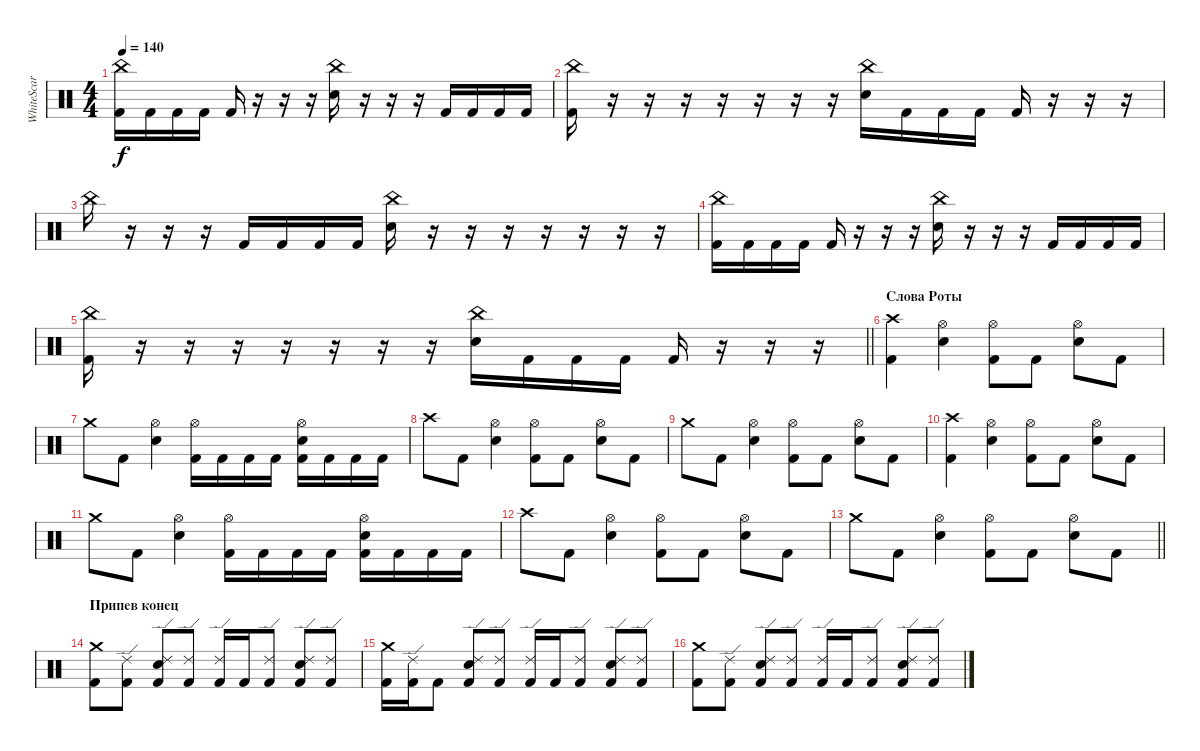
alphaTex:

\track ("WhiteScar " "WhiteScar ") {instrument percussion}
\staff {score}
\articulation defaults
\ts (4 4)
\tempo 140
\clef neutral
\ks c
("China (hit)" "Kick (hit) 2").16{dy f} "Kick (hit) 2".16 "Kick (hit) 2".16 "Kick (hit) 2".16 "Kick (hit) 2".16 r.16 r.16 r.16 ("China (hit)" "Snare (hit) 2").16 r.16 r.16 r.16 "Kick (hit) 2".16 "Kick (hit) 2".16 "Kick (hit) 2".16 "Kick (hit) 2".16 |
("China (hit)" "Kick (hit) 2").16 r.16 r.16 r.16 r.16 r.16 r.16 r.16 ("China (hit)" "Snare (hit) 2").16 "Kick (hit) 2".16 "Kick (hit) 2".16 "Kick (hit) 2".16 "Kick (hit) 2".16 r.16 r.16 r.16 |
"China (hit)".16 r.16 r.16 r.16 "Kick (hit) 2".16 "Kick (hit) 2".16 "Kick (hit) 2".16 "Kick (hit) 2".16 ("China (hit)" "Snare (hit) 2").16 r.16 r.16 r.16 r.16 r.16 r.16 r.16 |
("China (hit)" "Kick (hit) 2").16 "Kick (hit) 2".16 "Kick (hit) 2".16 "Kick (hit) 2".16 "Kick (hit) 2".16 r.16 r.16 r.16 ("China (hit)" "Snare (hit) 2").16 r.16 r.16 r.16 "Kick (hit) 2".16 "Kick (hit) 2".16 "Kick (hit) 2".16 "Kick (hit) 2".16 |
\barLineRight lightlight
("China (hit)" "Kick (hit) 2").16 r.16 r.16 r.16 r.16 r.16 r.16 r.16 ("China (hit)" "Snare (hit) 2").16 "Kick (hit) 2".16 "Kick (hit) 2".16 "Kick (hit) 2".16 "Kick (hit) 2".16 r.16 r.16 r.16 |
\section ("" "Слова Роты")
("Crash high (hit)" "Kick (hit) 2").4 ("Hi-Hat (open)" "Snare (hit) 2").4 ("Hi-Hat (open)" "Kick (hit) 2").8 "Kick (hit) 2".8 ("Hi-Hat (open)" "Snare (hit) 2").8 "Kick (hit) 2".8 |
"Crash medium (hit)".8 "Kick (hit) 2".8 ("Hi-Hat (open)" "Snare (hit) 2").4 ("Hi-Hat (open)" "Kick (hit) 2").16 "Kick (hit) 2".16 "Kick (hit) 2".16 "Kick (hit) 2".16 ("Hi-Hat (open)" "Snare (hit) 2" "Kick (hit) 2").16 "Kick (hit) 2".16 "Kick (hit) 2".16 "Kick (hit) 2".16 |
"Crash high (hit)".8 "Kick (hit) 2".8 ("Hi-Hat (open)" "Snare (hit) 2").4 ("Hi-Hat (open)" "Kick (hit) 2").8 "Kick (hit) 2".8 ("Hi-Hat (open)" "Snare (hit) 2").8 "Kick (hit) 2".8 |
"Crash medium (hit)".8 "Kick (hit) 2".8 ("Hi-Hat (open)" "Snare (hit) 2").4 ("Hi-Hat (open)" "Kick (hit) 2").8 "Kick (hit) 2".8 ("Hi-Hat (open)" "Snare (hit) 2").8 "Kick (hit) 2".8 |
("Crash high (hit)" "Kick (hit) 2").4 ("Hi-Hat (open)" "Snare (hit) 2").4 ("Hi-Hat (open)" "Kick (hit) 2").8 "Kick (hit) 2".8 ("Hi-Hat (open)" "Snare (hit) 2").8 "Kick (hit) 2".8 |
"Crash medium (hit)".8 "Kick (hit) 2".8 ("Hi-Hat (open)" "Snare (hit) 2").4 ("Hi-Hat (open)" "Kick (hit) 2").16 "Kick (hit) 2".16 "Kick (hit) 2".16 "Kick (hit) 2".16 ("Hi-Hat (open)" "Snare (hit) 2" "Kick (hit) 2").16 "Kick (hit) 2".16 "Kick (hit) 2".16 "Kick (hit) 2".16 |
"Crash high (hit)".8 "Kick (hit) 2".8 ("Hi-Hat (open)" "Snare (hit) 2").4 ("Hi-Hat (open)" "Kick (hit) 2").8 "Kick (hit) 2".8 ("Hi-Hat (open)" "Snare (hit) 2").8 "Kick (hit) 2".8 |
\barLineRight lightlight "Crash medium (hit)".8 "Kick (hit) 2".8
("Hi-Hat (open)" "Snare (hit) 2").4 ("Hi-Hat (open)" "Kick (hit) 2").8 "Kick (hit) 2".8 ("Hi-Hat (open)" "Snare (hit) 2").8 "Kick (hit) 2".8 |
\section ("" "Припев конец")
("Crash medium (hit)" "Kick (hit) 2").8 ("Ride (edge) 2" "Kick (hit) 2").8 ("Snare (hit) 2" "Ride (edge) 2" "Kick (hit) 2").8 ("Ride (edge) 2" "Kick (hit) 2").8 ("Ride (edge) 2" "Kick (hit) 2").16 "Kick (hit) 2".16 ("Ride (edge) 2" "Kick (hit) 2").8 ("Snare (hit) 2" "Ride (edge) 2" "Kick (hit) 2").8 ("Ride (edge) 2" "Kick (hit) 2").8 |
("Crash medium (hit)" "Kick (hit) 2").16 ("Ride (edge) 2" "Kick (hit) 2").16 "Kick (hit) 2".8 ("Snare (hit) 2" "Ride (edge) 2" "Kick (hit) 2").8 ("Ride (edge) 2" "Kick (hit) 2").8 ("Ride (edge) 2" "Kick (hit) 2").16 "Kick (hit) 2".16 ("Ride (edge) 2" "Kick (hit) 2").8 ("Snare (hit) 2" "Ride (edge) 2" "Kick (hit) 2").8 ("Ride (edge) 2" "Kick (hit) 2").8 |
("Crash medium (hit)" "Kick (hit) 2").8 ("Ride (edge) 2" "Kick (hit) 2").8 ("Snare (hit) 2" "Ride (edge) 2" "Kick (hit) 2").8 ("Ride (edge) 2" "Kick (hit) 2").8 ("Ride (edge) 2" "Kick (hit) 2").16 "Kick (hit) 2".16 ("Ride (edge) 2" "Kick (hit) 2").8 ("Snare (hit) 2" "Ride (edge) 2" "Kick (hit) 2").8 ("Ride (edge) 2" "Kick (hit) 2").8
